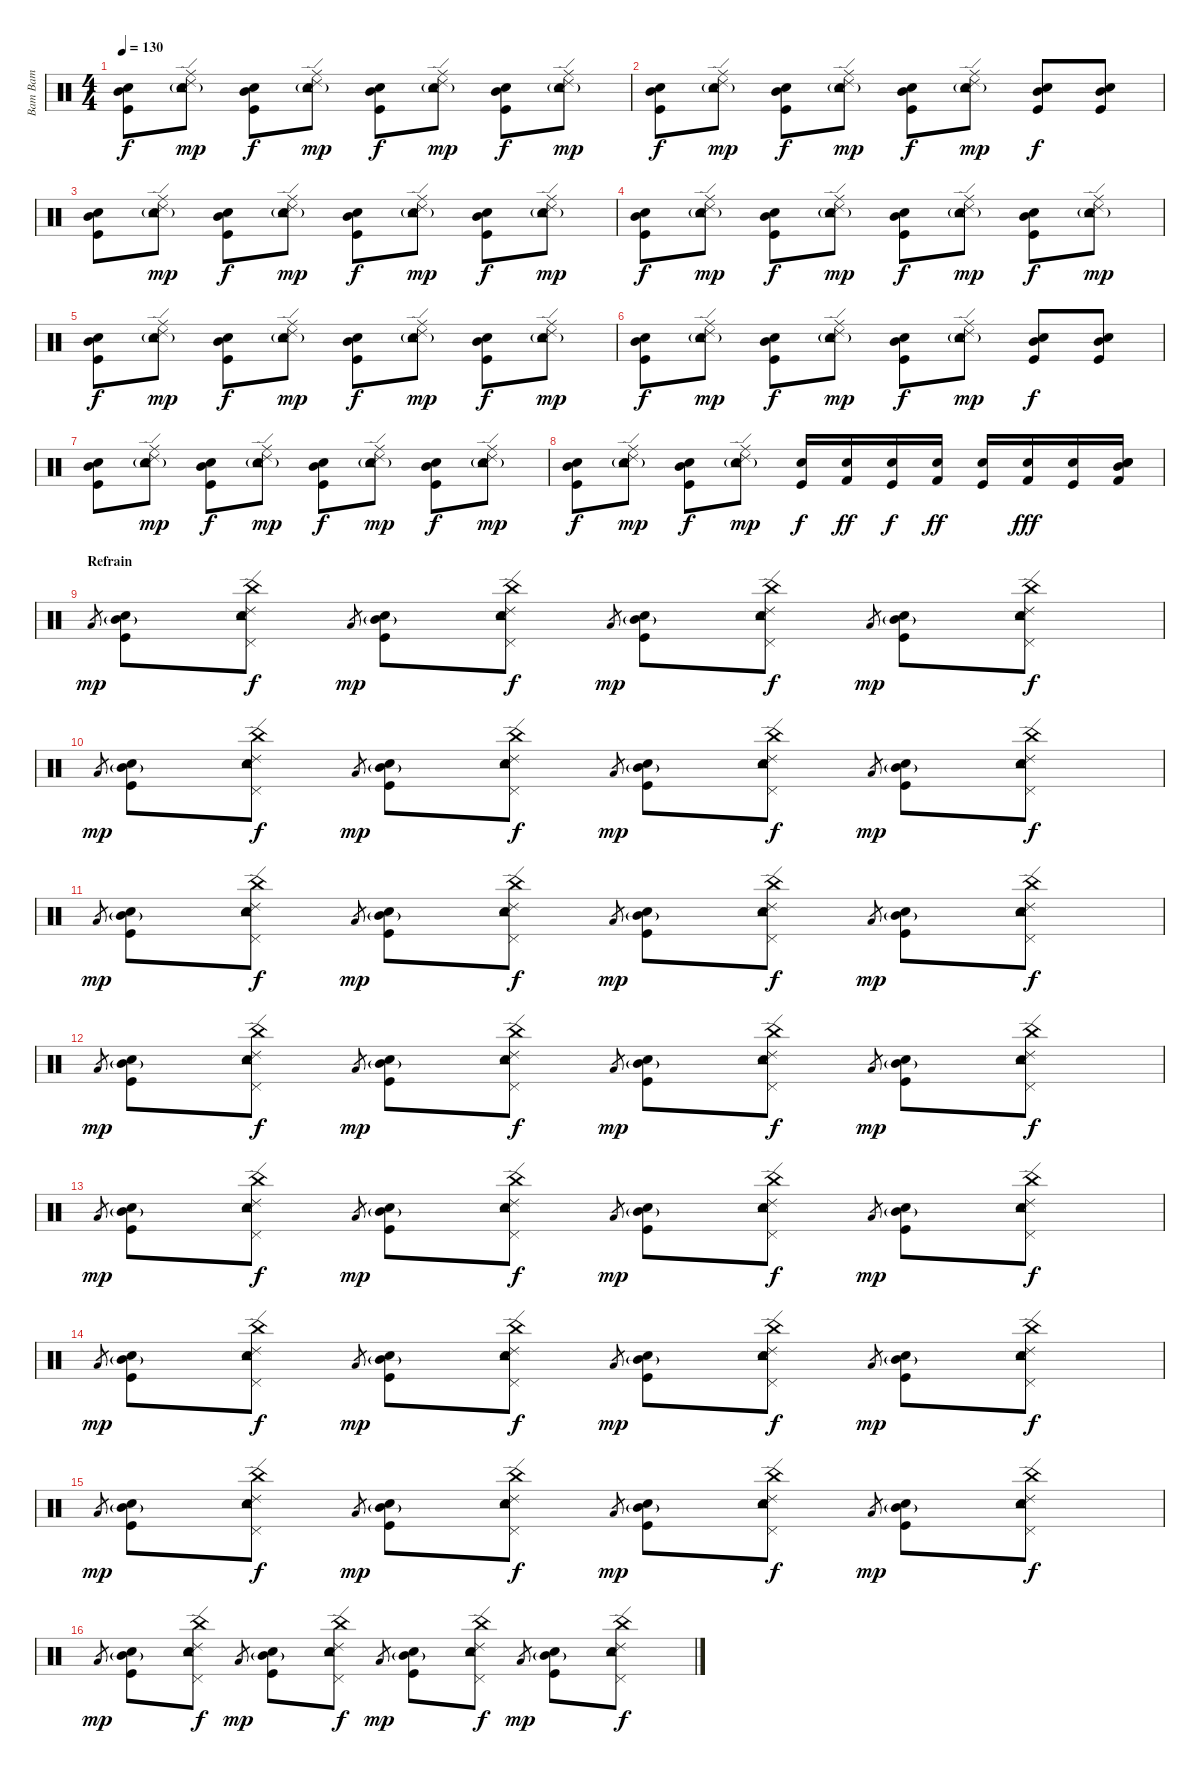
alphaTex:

\track ("Bam Bam" "Bam Bam") {instrument percussion}
\staff {score}
\articulation defaults
\ts (4 4)
\tempo 130
\clef neutral
\ks c
("Kick (hit)" "Mid Tom (hit)" "Electric Snare (hit)").8{dy f} ("Ride (middle)" "Tambourine (hit)" "Ride (edge) 2" "Snare (hit) 2"{g}).8{dy mp} ("Kick (hit)" "Mid Tom (hit)" "Electric Snare (hit)").8{dy f} ("Ride (middle)" "Tambourine (hit)" "Ride (edge) 2" "Snare (hit) 2"{g}).8{dy mp} ("Kick (hit)" "Mid Tom (hit)" "Electric Snare (hit)").8{dy f} ("Ride (middle)" "Tambourine (hit)" "Ride (edge) 2" "Snare (hit) 2"{g}).8{dy mp} ("Kick (hit)" "Mid Tom (hit)" "Electric Snare (hit)").8{dy f} ("Ride (middle)" "Tambourine (hit)" "Ride (edge) 2" "Snare (hit) 2"{g}).8{dy mp} |
("Kick (hit)" "Mid Tom (hit)" "Electric Snare (hit)").8{dy f} ("Ride (middle)" "Tambourine (hit)" "Ride (edge) 2" "Snare (hit) 2"{g}).8{dy mp} ("Kick (hit)" "Mid Tom (hit)" "Electric Snare (hit)").8{dy f} ("Ride (middle)" "Tambourine (hit)" "Ride (edge) 2" "Snare (hit) 2"{g}).8{dy mp} ("Kick (hit)" "Mid Tom (hit)" "Electric Snare (hit)").8{dy f} ("Ride (middle)" "Tambourine (hit)" "Ride (edge) 2" "Snare (hit) 2"{g}).8{dy mp} ("Kick (hit)" "Mid Tom (hit)" "Snare (hit) 2").8{dy f} ("Kick (hit)" "Mid Tom (hit)" "Electric Snare (hit)").8 |
("Kick (hit)" "Mid Tom (hit)" "Electric Snare (hit)").8 ("Ride (middle)" "Tambourine (hit)" "Ride (edge) 2" "Snare (hit) 2"{g}).8{dy mp} ("Kick (hit)" "Mid Tom (hit)" "Electric Snare (hit)").8{dy f} ("Ride (middle)" "Tambourine (hit)" "Ride (edge) 2" "Snare (hit) 2"{g}).8{dy mp} ("Kick (hit)" "Mid Tom (hit)" "Electric Snare (hit)").8{dy f} ("Ride (middle)" "Tambourine (hit)" "Ride (edge) 2" "Snare (hit) 2"{g}).8{dy mp} ("Kick (hit)" "Mid Tom (hit)" "Electric Snare (hit)").8{dy f} ("Ride (middle)" "Tambourine (hit)" "Ride (edge) 2" "Snare (hit) 2"{g}).8{dy mp} |
("Kick (hit)" "Mid Tom (hit)" "Electric Snare (hit)").8{dy f} ("Ride (middle)" "Tambourine (hit)" "Ride (edge) 2" "Snare (hit) 2"{g}).8{dy mp} ("Kick (hit)" "Mid Tom (hit)" "Electric Snare (hit)").8{dy f} ("Ride (middle)" "Tambourine (hit)" "Ride (edge) 2" "Snare (hit) 2"{g}).8{dy mp} ("Kick (hit)" "Mid Tom (hit)" "Electric Snare (hit)").8{dy f} ("Ride (middle)" "Tambourine (hit)" "Ride (edge) 2" "Snare (hit) 2"{g}).8{dy mp} ("Kick (hit)" "Mid Tom (hit)" "Electric Snare (hit)").8{dy f} ("Ride (middle)" "Tambourine (hit)" "Ride (edge) 2" "Snare (hit) 2"{g}).8{dy mp} |
("Kick (hit)" "Mid Tom (hit)" "Electric Snare (hit)").8{dy f} ("Ride (middle)" "Tambourine (hit)" "Ride (edge) 2" "Snare (hit) 2"{g}).8{dy mp} ("Kick (hit)" "Mid Tom (hit)" "Electric Snare (hit)").8{dy f} ("Ride (middle)" "Tambourine (hit)" "Ride (edge) 2" "Snare (hit) 2"{g}).8{dy mp} ("Kick (hit)" "Mid Tom (hit)" "Electric Snare (hit)").8{dy f} ("Ride (middle)" "Tambourine (hit)" "Ride (edge) 2" "Snare (hit) 2"{g}).8{dy mp} ("Kick (hit)" "Mid Tom (hit)" "Electric Snare (hit)").8{dy f} ("Ride (middle)" "Tambourine (hit)" "Ride (edge) 2" "Snare (hit) 2"{g}).8{dy mp} |
("Kick (hit)" "Mid Tom (hit)" "Electric Snare (hit)").8{dy f} ("Ride (middle)" "Tambourine (hit)" "Ride (edge) 2" "Snare (hit) 2"{g}).8{dy mp} ("Kick (hit)" "Mid Tom (hit)" "Electric Snare (hit)").8{dy f} ("Ride (middle)" "Tambourine (hit)" "Ride (edge) 2" "Snare (hit) 2"{g}).8{dy mp} ("Kick (hit)" "Mid Tom (hit)" "Electric Snare (hit)").8{dy f} ("Ride (middle)" "Tambourine (hit)" "Ride (edge) 2" "Snare (hit) 2"{g}).8{dy mp} ("Kick (hit)" "Mid Tom (hit)" "Snare (hit) 2").8{dy f} ("Kick (hit)" "Mid Tom (hit)" "Electric Snare (hit)").8 |
("Kick (hit)" "Mid Tom (hit)" "Electric Snare (hit)").8 ("Ride (middle)" "Tambourine (hit)" "Ride (edge) 2" "Snare (hit) 2"{g}).8{dy mp} ("Kick (hit)" "Mid Tom (hit)" "Electric Snare (hit)").8{dy f} ("Ride (middle)" "Tambourine (hit)" "Ride (edge) 2" "Snare (hit) 2"{g}).8{dy mp} ("Kick (hit)" "Mid Tom (hit)" "Electric Snare (hit)").8{dy f} ("Ride (middle)" "Tambourine (hit)" "Ride (edge) 2" "Snare (hit) 2"{g}).8{dy mp} ("Kick (hit)" "Mid Tom (hit)" "Electric Snare (hit)").8{dy f} ("Ride (middle)" "Tambourine (hit)" "Ride (edge) 2" "Snare (hit) 2"{g}).8{dy mp} |
("Kick (hit)" "Mid Tom (hit)" "Electric Snare (hit)").8{dy f} ("Ride (middle)" "Tambourine (hit)" "Ride (edge) 2" "Snare (hit) 2"{g}).8{dy mp} ("Kick (hit)" "Mid Tom (hit)" "Electric Snare (hit)").8{dy f} ("Ride (middle)" "Tambourine (hit)" "Ride (edge) 2" "Snare (hit) 2"{g}).8{dy mp} ("Kick (hit)" "Snare (hit) 2").16{dy f} ("Kick (hit) 2" "Electric Snare (hit)").16{dy ff} ("Kick (hit)" "Snare (hit) 2").16{dy f} ("Kick (hit) 2" "Electric Snare (hit)").16{dy ff} ("Kick (hit)" "Snare (hit) 2").16 ("Kick (hit) 2" "Electric Snare (hit)").16{dy fff} ("Kick (hit)" "Snare (hit) 2").16 ("Mid Tom (hit)" "Kick (hit) 2" "Electric Snare (hit)" "Snare (hit) 2").16 |
\section ("" "Refrain")
"Low Tom (hit)".8{gr dy mp} ("Mid Tom (hit)"{g} "Kick (hit)" "Snare (hit) 2").8 ("Tambourine (hit)" "Pedal Hi-Hat (hit)" "China (hit)" "Ride (edge) 2" "Electric Snare (hit)").8{dy f} "Low Tom (hit)".8{gr dy mp} ("Mid Tom (hit)"{g} "Kick (hit)" "Snare (hit) 2").8 ("Tambourine (hit)" "Pedal Hi-Hat (hit)" "China (hit)" "Ride (edge) 2" "Electric Snare (hit)").8{dy f} "Low Tom (hit)".8{gr dy mp} ("Mid Tom (hit)"{g} "Kick (hit)" "Snare (hit) 2").8 ("Tambourine (hit)" "Pedal Hi-Hat (hit)" "China (hit)" "Ride (edge) 2" "Electric Snare (hit)").8{dy f} "Low Tom (hit)".8{gr dy mp} ("Mid Tom (hit)"{g} "Kick (hit)" "Snare (hit) 2").8 ("Tambourine (hit)" "Pedal Hi-Hat (hit)" "China (hit)" "Ride (edge) 2" "Electric Snare (hit)").8{dy f} |
"Low Tom (hit)".8{gr dy mp} ("Mid Tom (hit)"{g} "Kick (hit)" "Snare (hit) 2").8 ("Tambourine (hit)" "Pedal Hi-Hat (hit)" "China (hit)" "Ride (edge) 2" "Electric Snare (hit)").8{dy f} "Low Tom (hit)".8{gr dy mp} ("Mid Tom (hit)"{g} "Kick (hit)" "Snare (hit) 2").8 ("Tambourine (hit)" "Pedal Hi-Hat (hit)" "China (hit)" "Ride (edge) 2" "Electric Snare (hit)").8{dy f} "Low Tom (hit)".8{gr dy mp} ("Mid Tom (hit)"{g} "Kick (hit)" "Snare (hit) 2").8 ("Tambourine (hit)" "Pedal Hi-Hat (hit)" "China (hit)" "Ride (edge) 2" "Electric Snare (hit)").8{dy f} "Low Tom (hit)".8{gr dy mp} ("Mid Tom (hit)"{g} "Kick (hit)" "Snare (hit) 2").8 ("Tambourine (hit)" "Pedal Hi-Hat (hit)" "China (hit)" "Ride (edge) 2" "Electric Snare (hit)").8{dy f} |
"Low Tom (hit)".8{gr dy mp} ("Mid Tom (hit)"{g} "Kick (hit)" "Snare (hit) 2").8 ("Tambourine (hit)" "Pedal Hi-Hat (hit)" "China (hit)" "Ride (edge) 2" "Electric Snare (hit)").8{dy f} "Low Tom (hit)".8{gr dy mp} ("Mid Tom (hit)"{g} "Kick (hit)" "Snare (hit) 2").8 ("Tambourine (hit)" "Pedal Hi-Hat (hit)" "China (hit)" "Ride (edge) 2" "Electric Snare (hit)").8{dy f} "Low Tom (hit)".8{gr dy mp} ("Mid Tom (hit)"{g} "Kick (hit)" "Snare (hit) 2").8 ("Tambourine (hit)" "Pedal Hi-Hat (hit)" "China (hit)" "Ride (edge) 2" "Electric Snare (hit)").8{dy f} "Low Tom (hit)".8{gr dy mp} ("Mid Tom (hit)"{g} "Kick (hit)" "Snare (hit) 2").8 ("Tambourine (hit)" "Pedal Hi-Hat (hit)" "China (hit)" "Ride (edge) 2" "Electric Snare (hit)").8{dy f} |
"Low Tom (hit)".8{gr dy mp} ("Mid Tom (hit)"{g} "Kick (hit)" "Snare (hit) 2").8 ("Tambourine (hit)" "Pedal Hi-Hat (hit)" "China (hit)" "Ride (edge) 2" "Electric Snare (hit)").8{dy f} "Low Tom (hit)".8{gr dy mp} ("Mid Tom (hit)"{g} "Kick (hit)" "Snare (hit) 2").8 ("Tambourine (hit)" "Pedal Hi-Hat (hit)" "China (hit)" "Ride (edge) 2" "Electric Snare (hit)").8{dy f} "Low Tom (hit)".8{gr dy mp} ("Mid Tom (hit)"{g} "Kick (hit)" "Snare (hit) 2").8 ("Tambourine (hit)" "Pedal Hi-Hat (hit)" "China (hit)" "Ride (edge) 2" "Electric Snare (hit)").8{dy f} "Low Tom (hit)".8{gr dy mp} ("Mid Tom (hit)"{g} "Kick (hit)" "Snare (hit) 2").8 ("Tambourine (hit)" "Pedal Hi-Hat (hit)" "China (hit)" "Ride (edge) 2" "Electric Snare (hit)").8{dy f} |
"Low Tom (hit)".8{gr dy mp} ("Mid Tom (hit)"{g} "Kick (hit)" "Snare (hit) 2").8 ("Tambourine (hit)" "Pedal Hi-Hat (hit)" "China (hit)" "Ride (edge) 2" "Electric Snare (hit)").8{dy f} "Low Tom (hit)".8{gr dy mp} ("Mid Tom (hit)"{g} "Kick (hit)" "Snare (hit) 2").8 ("Tambourine (hit)" "Pedal Hi-Hat (hit)" "China (hit)" "Ride (edge) 2" "Electric Snare (hit)").8{dy f} "Low Tom (hit)".8{gr dy mp} ("Mid Tom (hit)"{g} "Kick (hit)" "Snare (hit) 2").8 ("Tambourine (hit)" "Pedal Hi-Hat (hit)" "China (hit)" "Ride (edge) 2" "Electric Snare (hit)").8{dy f} "Low Tom (hit)".8{gr dy mp} ("Mid Tom (hit)"{g} "Kick (hit)" "Snare (hit) 2").8 ("Tambourine (hit)" "Pedal Hi-Hat (hit)" "China (hit)" "Ride (edge) 2" "Electric Snare (hit)").8{dy f} |
"Low Tom (hit)".8{gr dy mp} ("Mid Tom (hit)"{g} "Kick (hit)" "Snare (hit) 2").8 ("Tambourine (hit)" "Pedal Hi-Hat (hit)" "China (hit)" "Ride (edge) 2" "Electric Snare (hit)").8{dy f} "Low Tom (hit)".8{gr dy mp} ("Mid Tom (hit)"{g} "Kick (hit)" "Snare (hit) 2").8 ("Tambourine (hit)" "Pedal Hi-Hat (hit)" "China (hit)" "Ride (edge) 2" "Electric Snare (hit)").8{dy f} "Low Tom (hit)".8{gr dy mp} ("Mid Tom (hit)"{g} "Kick (hit)" "Snare (hit) 2").8 ("Tambourine (hit)" "Pedal Hi-Hat (hit)" "China (hit)" "Ride (edge) 2" "Electric Snare (hit)").8{dy f} "Low Tom (hit)".8{gr dy mp} ("Mid Tom (hit)"{g} "Kick (hit)" "Snare (hit) 2").8 ("Tambourine (hit)" "Pedal Hi-Hat (hit)" "China (hit)" "Ride (edge) 2" "Electric Snare (hit)").8{dy f} |
"Low Tom (hit)".8{gr dy mp} ("Mid Tom (hit)"{g} "Kick (hit)" "Snare (hit) 2").8 ("Tambourine (hit)" "Pedal Hi-Hat (hit)" "China (hit)" "Ride (edge) 2" "Electric Snare (hit)").8{dy f} "Low Tom (hit)".8{gr dy mp} ("Mid Tom (hit)"{g} "Kick (hit)" "Snare (hit) 2").8 ("Tambourine (hit)" "Pedal Hi-Hat (hit)" "China (hit)" "Ride (edge) 2" "Electric Snare (hit)").8{dy f} "Low Tom (hit)".8{gr dy mp} ("Mid Tom (hit)"{g} "Kick (hit)" "Snare (hit) 2").8 ("Tambourine (hit)" "Pedal Hi-Hat (hit)" "China (hit)" "Ride (edge) 2" "Electric Snare (hit)").8{dy f} "Low Tom (hit)".8{gr dy mp} ("Mid Tom (hit)"{g} "Kick (hit)" "Snare (hit) 2").8 ("Tambourine (hit)" "Pedal Hi-Hat (hit)" "China (hit)" "Ride (edge) 2" "Electric Snare (hit)").8{dy f} |
"Low Tom (hit)".8{gr dy mp} ("Mid Tom (hit)"{g} "Kick (hit)" "Snare (hit) 2").8 ("Tambourine (hit)" "Pedal Hi-Hat (hit)" "China (hit)" "Ride (edge) 2" "Electric Snare (hit)").8{dy f} "Low Tom (hit)".8{gr dy mp} ("Mid Tom (hit)"{g} "Kick (hit)" "Snare (hit) 2").8 ("Tambourine (hit)" "Pedal Hi-Hat (hit)" "China (hit)" "Ride (edge) 2" "Electric Snare (hit)").8{dy f} "Low Tom (hit)".8{gr dy mp} ("Mid Tom (hit)"{g} "Kick (hit)" "Snare (hit) 2").8 ("Tambourine (hit)" "Pedal Hi-Hat (hit)" "China (hit)" "Ride (edge) 2" "Electric Snare (hit)").8{dy f} "Low Tom (hit)".8{gr dy mp} ("Mid Tom (hit)"{g} "Kick (hit)" "Snare (hit) 2").8 ("Tambourine (hit)" "Pedal Hi-Hat (hit)" "China (hit)" "Ride (edge) 2" "Electric Snare (hit)").8{dy f}
